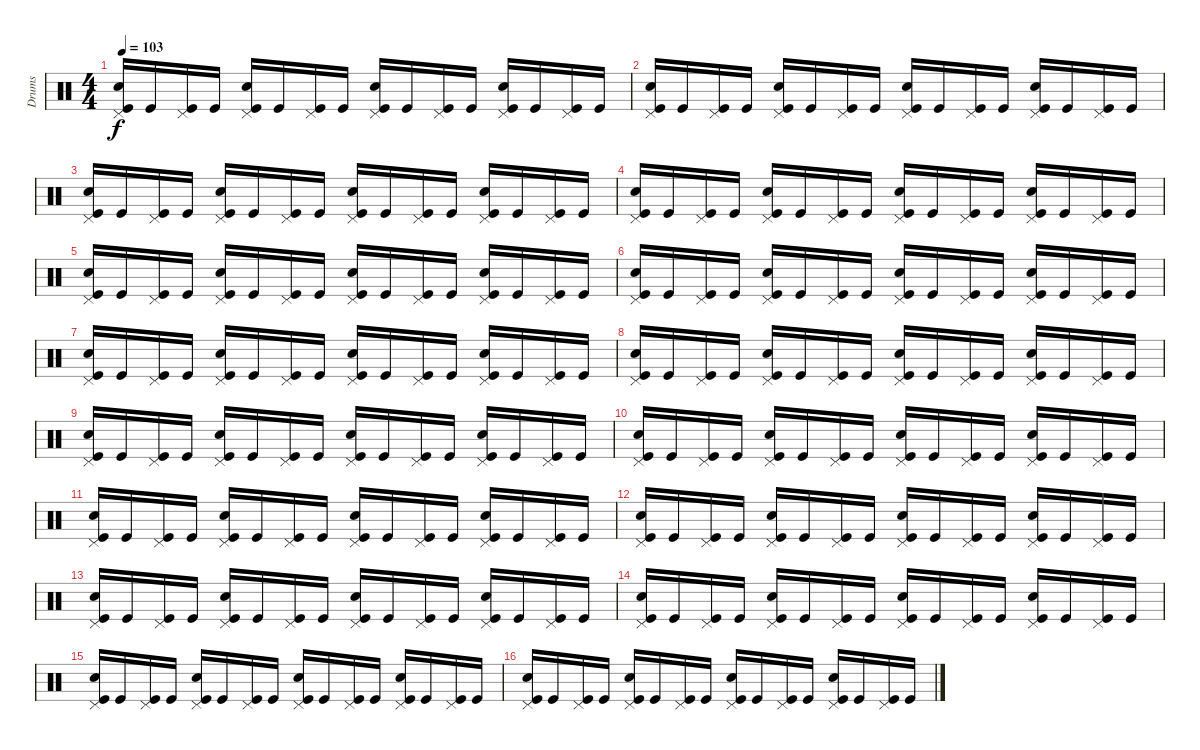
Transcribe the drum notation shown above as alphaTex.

\track ("Drums" "Drums") {instrument percussion}
\staff {score}
\articulation defaults
\ts (4 4)
\tempo 103
\clef neutral
\ks c
("Pedal Hi-Hat (hit)" "Electric Snare (hit)" "Kick (hit)").16{dy f} "Kick (hit)".16 ("Pedal Hi-Hat (hit)" "Kick (hit)").16 "Kick (hit)".16 ("Pedal Hi-Hat (hit)" "Electric Snare (hit)" "Kick (hit)").16 "Kick (hit)".16 ("Pedal Hi-Hat (hit)" "Kick (hit)").16 "Kick (hit)".16 ("Pedal Hi-Hat (hit)" "Electric Snare (hit)" "Kick (hit)").16 "Kick (hit)".16 ("Pedal Hi-Hat (hit)" "Kick (hit)").16 "Kick (hit)".16 ("Pedal Hi-Hat (hit)" "Electric Snare (hit)" "Kick (hit)").16 "Kick (hit)".16 ("Pedal Hi-Hat (hit)" "Kick (hit)").16 "Kick (hit)".16 |
("Pedal Hi-Hat (hit)" "Electric Snare (hit)" "Kick (hit)").16 "Kick (hit)".16 ("Pedal Hi-Hat (hit)" "Kick (hit)").16 "Kick (hit)".16 ("Pedal Hi-Hat (hit)" "Electric Snare (hit)" "Kick (hit)").16 "Kick (hit)".16 ("Pedal Hi-Hat (hit)" "Kick (hit)").16 "Kick (hit)".16 ("Pedal Hi-Hat (hit)" "Electric Snare (hit)" "Kick (hit)").16 "Kick (hit)".16 ("Pedal Hi-Hat (hit)" "Kick (hit)").16 "Kick (hit)".16 ("Pedal Hi-Hat (hit)" "Electric Snare (hit)" "Kick (hit)").16 "Kick (hit)".16 ("Pedal Hi-Hat (hit)" "Kick (hit)").16 "Kick (hit)".16 |
("Pedal Hi-Hat (hit)" "Electric Snare (hit)" "Kick (hit)").16 "Kick (hit)".16 ("Pedal Hi-Hat (hit)" "Kick (hit)").16 "Kick (hit)".16 ("Pedal Hi-Hat (hit)" "Electric Snare (hit)" "Kick (hit)").16 "Kick (hit)".16 ("Pedal Hi-Hat (hit)" "Kick (hit)").16 "Kick (hit)".16 ("Pedal Hi-Hat (hit)" "Electric Snare (hit)" "Kick (hit)").16 "Kick (hit)".16 ("Pedal Hi-Hat (hit)" "Kick (hit)").16 "Kick (hit)".16 ("Pedal Hi-Hat (hit)" "Electric Snare (hit)" "Kick (hit)").16 "Kick (hit)".16 ("Pedal Hi-Hat (hit)" "Kick (hit)").16 "Kick (hit)".16 |
("Pedal Hi-Hat (hit)" "Electric Snare (hit)" "Kick (hit)").16 "Kick (hit)".16 ("Pedal Hi-Hat (hit)" "Kick (hit)").16 "Kick (hit)".16 ("Pedal Hi-Hat (hit)" "Electric Snare (hit)" "Kick (hit)").16 "Kick (hit)".16 ("Pedal Hi-Hat (hit)" "Kick (hit)").16 "Kick (hit)".16 ("Pedal Hi-Hat (hit)" "Electric Snare (hit)" "Kick (hit)").16 "Kick (hit)".16 ("Pedal Hi-Hat (hit)" "Kick (hit)").16 "Kick (hit)".16 ("Pedal Hi-Hat (hit)" "Electric Snare (hit)" "Kick (hit)").16 "Kick (hit)".16 ("Pedal Hi-Hat (hit)" "Kick (hit)").16 "Kick (hit)".16 |
("Pedal Hi-Hat (hit)" "Electric Snare (hit)" "Kick (hit)").16 "Kick (hit)".16 ("Pedal Hi-Hat (hit)" "Kick (hit)").16 "Kick (hit)".16 ("Pedal Hi-Hat (hit)" "Electric Snare (hit)" "Kick (hit)").16 "Kick (hit)".16 ("Pedal Hi-Hat (hit)" "Kick (hit)").16 "Kick (hit)".16 ("Pedal Hi-Hat (hit)" "Electric Snare (hit)" "Kick (hit)").16 "Kick (hit)".16 ("Pedal Hi-Hat (hit)" "Kick (hit)").16 "Kick (hit)".16 ("Pedal Hi-Hat (hit)" "Electric Snare (hit)" "Kick (hit)").16 "Kick (hit)".16 ("Pedal Hi-Hat (hit)" "Kick (hit)").16 "Kick (hit)".16 |
("Pedal Hi-Hat (hit)" "Electric Snare (hit)" "Kick (hit)").16 "Kick (hit)".16 ("Pedal Hi-Hat (hit)" "Kick (hit)").16 "Kick (hit)".16 ("Pedal Hi-Hat (hit)" "Electric Snare (hit)" "Kick (hit)").16 "Kick (hit)".16 ("Pedal Hi-Hat (hit)" "Kick (hit)").16 "Kick (hit)".16 ("Pedal Hi-Hat (hit)" "Electric Snare (hit)" "Kick (hit)").16 "Kick (hit)".16 ("Pedal Hi-Hat (hit)" "Kick (hit)").16 "Kick (hit)".16 ("Pedal Hi-Hat (hit)" "Electric Snare (hit)" "Kick (hit)").16 "Kick (hit)".16 ("Pedal Hi-Hat (hit)" "Kick (hit)").16 "Kick (hit)".16 |
("Pedal Hi-Hat (hit)" "Electric Snare (hit)" "Kick (hit)").16 "Kick (hit)".16 ("Pedal Hi-Hat (hit)" "Kick (hit)").16 "Kick (hit)".16 ("Pedal Hi-Hat (hit)" "Electric Snare (hit)" "Kick (hit)").16 "Kick (hit)".16 ("Pedal Hi-Hat (hit)" "Kick (hit)").16 "Kick (hit)".16 ("Pedal Hi-Hat (hit)" "Electric Snare (hit)" "Kick (hit)").16 "Kick (hit)".16 ("Pedal Hi-Hat (hit)" "Kick (hit)").16 "Kick (hit)".16 ("Pedal Hi-Hat (hit)" "Electric Snare (hit)" "Kick (hit)").16 "Kick (hit)".16 ("Pedal Hi-Hat (hit)" "Kick (hit)").16 "Kick (hit)".16 |
("Pedal Hi-Hat (hit)" "Electric Snare (hit)" "Kick (hit)").16 "Kick (hit)".16 ("Pedal Hi-Hat (hit)" "Kick (hit)").16 "Kick (hit)".16 ("Pedal Hi-Hat (hit)" "Electric Snare (hit)" "Kick (hit)").16 "Kick (hit)".16 ("Pedal Hi-Hat (hit)" "Kick (hit)").16 "Kick (hit)".16 ("Pedal Hi-Hat (hit)" "Electric Snare (hit)" "Kick (hit)").16 "Kick (hit)".16 ("Pedal Hi-Hat (hit)" "Kick (hit)").16 "Kick (hit)".16 ("Pedal Hi-Hat (hit)" "Electric Snare (hit)" "Kick (hit)").16 "Kick (hit)".16 ("Pedal Hi-Hat (hit)" "Kick (hit)").16 "Kick (hit)".16 |
("Pedal Hi-Hat (hit)" "Electric Snare (hit)" "Kick (hit)").16 "Kick (hit)".16 ("Pedal Hi-Hat (hit)" "Kick (hit)").16 "Kick (hit)".16 ("Pedal Hi-Hat (hit)" "Electric Snare (hit)" "Kick (hit)").16 "Kick (hit)".16 ("Pedal Hi-Hat (hit)" "Kick (hit)").16 "Kick (hit)".16 ("Pedal Hi-Hat (hit)" "Electric Snare (hit)" "Kick (hit)").16 "Kick (hit)".16 ("Pedal Hi-Hat (hit)" "Kick (hit)").16 "Kick (hit)".16 ("Pedal Hi-Hat (hit)" "Electric Snare (hit)" "Kick (hit)").16 "Kick (hit)".16 ("Pedal Hi-Hat (hit)" "Kick (hit)").16 "Kick (hit)".16 |
("Pedal Hi-Hat (hit)" "Electric Snare (hit)" "Kick (hit)").16 "Kick (hit)".16 ("Pedal Hi-Hat (hit)" "Kick (hit)").16 "Kick (hit)".16 ("Pedal Hi-Hat (hit)" "Electric Snare (hit)" "Kick (hit)").16 "Kick (hit)".16 ("Pedal Hi-Hat (hit)" "Kick (hit)").16 "Kick (hit)".16 ("Pedal Hi-Hat (hit)" "Electric Snare (hit)" "Kick (hit)").16 "Kick (hit)".16 ("Pedal Hi-Hat (hit)" "Kick (hit)").16 "Kick (hit)".16 ("Pedal Hi-Hat (hit)" "Electric Snare (hit)" "Kick (hit)").16 "Kick (hit)".16 ("Pedal Hi-Hat (hit)" "Kick (hit)").16 "Kick (hit)".16 |
("Pedal Hi-Hat (hit)" "Electric Snare (hit)" "Kick (hit)").16 "Kick (hit)".16 ("Pedal Hi-Hat (hit)" "Kick (hit)").16 "Kick (hit)".16 ("Pedal Hi-Hat (hit)" "Electric Snare (hit)" "Kick (hit)").16 "Kick (hit)".16 ("Pedal Hi-Hat (hit)" "Kick (hit)").16 "Kick (hit)".16 ("Pedal Hi-Hat (hit)" "Electric Snare (hit)" "Kick (hit)").16 "Kick (hit)".16 ("Pedal Hi-Hat (hit)" "Kick (hit)").16 "Kick (hit)".16 ("Pedal Hi-Hat (hit)" "Electric Snare (hit)" "Kick (hit)").16 "Kick (hit)".16 ("Pedal Hi-Hat (hit)" "Kick (hit)").16 "Kick (hit)".16 |
("Pedal Hi-Hat (hit)" "Electric Snare (hit)" "Kick (hit)").16 "Kick (hit)".16 ("Pedal Hi-Hat (hit)" "Kick (hit)").16 "Kick (hit)".16 ("Pedal Hi-Hat (hit)" "Electric Snare (hit)" "Kick (hit)").16 "Kick (hit)".16 ("Pedal Hi-Hat (hit)" "Kick (hit)").16 "Kick (hit)".16 ("Pedal Hi-Hat (hit)" "Electric Snare (hit)" "Kick (hit)").16 "Kick (hit)".16 ("Pedal Hi-Hat (hit)" "Kick (hit)").16 "Kick (hit)".16 ("Pedal Hi-Hat (hit)" "Electric Snare (hit)" "Kick (hit)").16 "Kick (hit)".16 ("Pedal Hi-Hat (hit)" "Kick (hit)").16 "Kick (hit)".16 |
("Pedal Hi-Hat (hit)" "Electric Snare (hit)" "Kick (hit)").16 "Kick (hit)".16 ("Pedal Hi-Hat (hit)" "Kick (hit)").16 "Kick (hit)".16 ("Pedal Hi-Hat (hit)" "Electric Snare (hit)" "Kick (hit)").16 "Kick (hit)".16 ("Pedal Hi-Hat (hit)" "Kick (hit)").16 "Kick (hit)".16 ("Pedal Hi-Hat (hit)" "Electric Snare (hit)" "Kick (hit)").16 "Kick (hit)".16 ("Pedal Hi-Hat (hit)" "Kick (hit)").16 "Kick (hit)".16 ("Pedal Hi-Hat (hit)" "Electric Snare (hit)" "Kick (hit)").16 "Kick (hit)".16 ("Pedal Hi-Hat (hit)" "Kick (hit)").16 "Kick (hit)".16 |
("Pedal Hi-Hat (hit)" "Electric Snare (hit)" "Kick (hit)").16 "Kick (hit)".16 ("Pedal Hi-Hat (hit)" "Kick (hit)").16 "Kick (hit)".16 ("Pedal Hi-Hat (hit)" "Electric Snare (hit)" "Kick (hit)").16 "Kick (hit)".16 ("Pedal Hi-Hat (hit)" "Kick (hit)").16 "Kick (hit)".16 ("Pedal Hi-Hat (hit)" "Electric Snare (hit)" "Kick (hit)").16 "Kick (hit)".16 ("Pedal Hi-Hat (hit)" "Kick (hit)").16 "Kick (hit)".16 ("Pedal Hi-Hat (hit)" "Electric Snare (hit)" "Kick (hit)").16 "Kick (hit)".16 ("Pedal Hi-Hat (hit)" "Kick (hit)").16 "Kick (hit)".16 |
("Pedal Hi-Hat (hit)" "Electric Snare (hit)" "Kick (hit)").16 "Kick (hit)".16 ("Pedal Hi-Hat (hit)" "Kick (hit)").16 "Kick (hit)".16 ("Pedal Hi-Hat (hit)" "Electric Snare (hit)" "Kick (hit)").16 "Kick (hit)".16 ("Pedal Hi-Hat (hit)" "Kick (hit)").16 "Kick (hit)".16 ("Pedal Hi-Hat (hit)" "Electric Snare (hit)" "Kick (hit)").16 "Kick (hit)".16 ("Pedal Hi-Hat (hit)" "Kick (hit)").16 "Kick (hit)".16 ("Pedal Hi-Hat (hit)" "Electric Snare (hit)" "Kick (hit)").16 "Kick (hit)".16 ("Pedal Hi-Hat (hit)" "Kick (hit)").16 "Kick (hit)".16 |
("Pedal Hi-Hat (hit)" "Electric Snare (hit)" "Kick (hit)").16 "Kick (hit)".16 ("Pedal Hi-Hat (hit)" "Kick (hit)").16 "Kick (hit)".16 ("Pedal Hi-Hat (hit)" "Electric Snare (hit)" "Kick (hit)").16 "Kick (hit)".16 ("Pedal Hi-Hat (hit)" "Kick (hit)").16 "Kick (hit)".16 ("Pedal Hi-Hat (hit)" "Electric Snare (hit)" "Kick (hit)").16 "Kick (hit)".16 ("Pedal Hi-Hat (hit)" "Kick (hit)").16 "Kick (hit)".16 ("Pedal Hi-Hat (hit)" "Electric Snare (hit)" "Kick (hit)").16 "Kick (hit)".16 ("Pedal Hi-Hat (hit)" "Kick (hit)").16 "Kick (hit)".16
